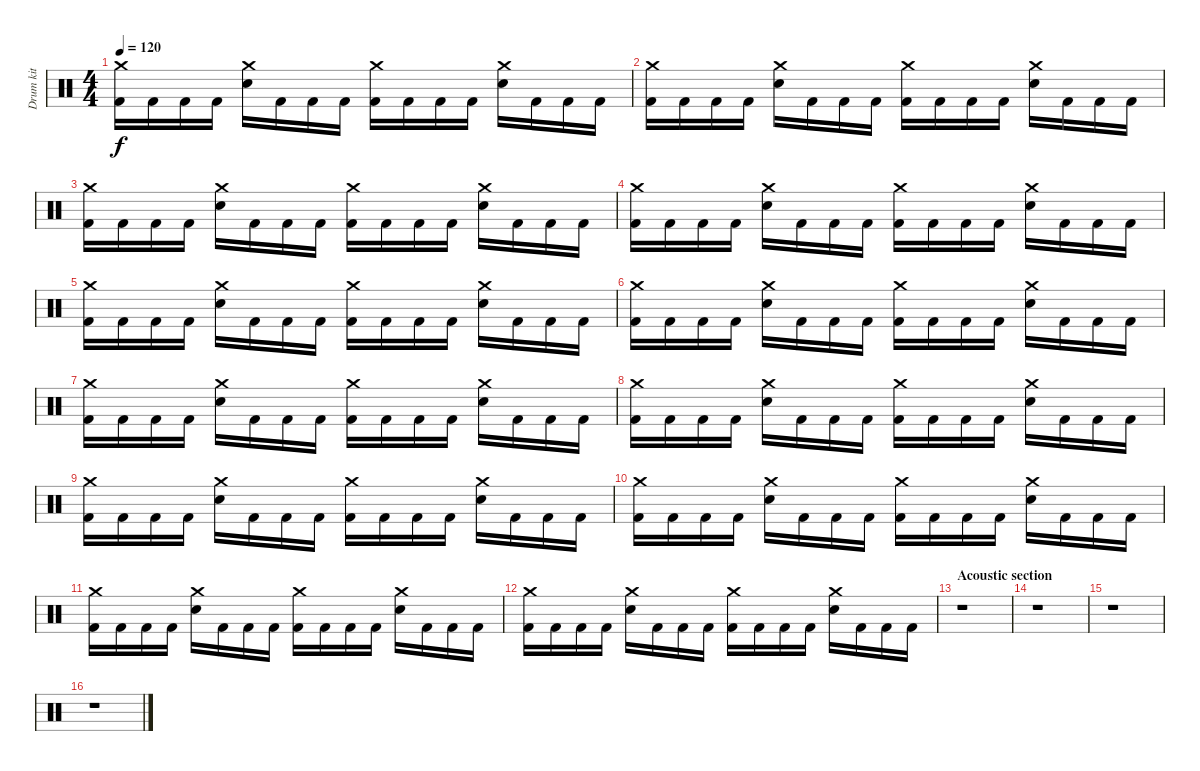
\track ("Drum kit" "Drum kit") {instrument percussion}
\staff {score}
\articulation defaults
\ts (4 4)
\tempo 120
\clef neutral
\ks c
("Kick (hit) 2" "Crash medium (hit)").16{dy f} "Kick (hit) 2".16 "Kick (hit) 2".16 "Kick (hit) 2".16 ("Electric Snare (hit)" "Crash medium (hit)").16 "Kick (hit) 2".16 "Kick (hit) 2".16 "Kick (hit) 2".16 ("Kick (hit) 2" "Crash medium (hit)").16 "Kick (hit) 2".16 "Kick (hit) 2".16 "Kick (hit) 2".16 ("Electric Snare (hit)" "Crash medium (hit)").16 "Kick (hit) 2".16 "Kick (hit) 2".16 "Kick (hit) 2".16 |
("Kick (hit) 2" "Crash medium (hit)").16 "Kick (hit) 2".16 "Kick (hit) 2".16 "Kick (hit) 2".16 ("Electric Snare (hit)" "Crash medium (hit)").16 "Kick (hit) 2".16 "Kick (hit) 2".16 "Kick (hit) 2".16 ("Kick (hit) 2" "Crash medium (hit)").16 "Kick (hit) 2".16 "Kick (hit) 2".16 "Kick (hit) 2".16 ("Electric Snare (hit)" "Crash medium (hit)").16 "Kick (hit) 2".16 "Kick (hit) 2".16 "Kick (hit) 2".16 |
("Kick (hit) 2" "Crash medium (hit)").16 "Kick (hit) 2".16 "Kick (hit) 2".16 "Kick (hit) 2".16 ("Electric Snare (hit)" "Crash medium (hit)").16 "Kick (hit) 2".16 "Kick (hit) 2".16 "Kick (hit) 2".16 ("Kick (hit) 2" "Crash medium (hit)").16 "Kick (hit) 2".16 "Kick (hit) 2".16 "Kick (hit) 2".16 ("Electric Snare (hit)" "Crash medium (hit)").16 "Kick (hit) 2".16 "Kick (hit) 2".16 "Kick (hit) 2".16 |
("Kick (hit) 2" "Crash medium (hit)").16 "Kick (hit) 2".16 "Kick (hit) 2".16 "Kick (hit) 2".16 ("Electric Snare (hit)" "Crash medium (hit)").16 "Kick (hit) 2".16 "Kick (hit) 2".16 "Kick (hit) 2".16 ("Kick (hit) 2" "Crash medium (hit)").16 "Kick (hit) 2".16 "Kick (hit) 2".16 "Kick (hit) 2".16 ("Electric Snare (hit)" "Crash medium (hit)").16 "Kick (hit) 2".16 "Kick (hit) 2".16 "Kick (hit) 2".16 |
("Kick (hit) 2" "Crash medium (hit)").16 "Kick (hit) 2".16 "Kick (hit) 2".16 "Kick (hit) 2".16 ("Electric Snare (hit)" "Crash medium (hit)").16 "Kick (hit) 2".16 "Kick (hit) 2".16 "Kick (hit) 2".16 ("Kick (hit) 2" "Crash medium (hit)").16 "Kick (hit) 2".16 "Kick (hit) 2".16 "Kick (hit) 2".16 ("Electric Snare (hit)" "Crash medium (hit)").16 "Kick (hit) 2".16 "Kick (hit) 2".16 "Kick (hit) 2".16 |
("Kick (hit) 2" "Crash medium (hit)").16 "Kick (hit) 2".16 "Kick (hit) 2".16 "Kick (hit) 2".16 ("Electric Snare (hit)" "Crash medium (hit)").16 "Kick (hit) 2".16 "Kick (hit) 2".16 "Kick (hit) 2".16 ("Kick (hit) 2" "Crash medium (hit)").16 "Kick (hit) 2".16 "Kick (hit) 2".16 "Kick (hit) 2".16 ("Electric Snare (hit)" "Crash medium (hit)").16 "Kick (hit) 2".16 "Kick (hit) 2".16 "Kick (hit) 2".16 |
("Kick (hit) 2" "Crash medium (hit)").16 "Kick (hit) 2".16 "Kick (hit) 2".16 "Kick (hit) 2".16 ("Electric Snare (hit)" "Crash medium (hit)").16 "Kick (hit) 2".16 "Kick (hit) 2".16 "Kick (hit) 2".16 ("Kick (hit) 2" "Crash medium (hit)").16 "Kick (hit) 2".16 "Kick (hit) 2".16 "Kick (hit) 2".16 ("Electric Snare (hit)" "Crash medium (hit)").16 "Kick (hit) 2".16 "Kick (hit) 2".16 "Kick (hit) 2".16 |
("Kick (hit) 2" "Crash medium (hit)").16 "Kick (hit) 2".16 "Kick (hit) 2".16 "Kick (hit) 2".16 ("Electric Snare (hit)" "Crash medium (hit)").16 "Kick (hit) 2".16 "Kick (hit) 2".16 "Kick (hit) 2".16 ("Kick (hit) 2" "Crash medium (hit)").16 "Kick (hit) 2".16 "Kick (hit) 2".16 "Kick (hit) 2".16 ("Electric Snare (hit)" "Crash medium (hit)").16 "Kick (hit) 2".16 "Kick (hit) 2".16 "Kick (hit) 2".16 |
("Kick (hit) 2" "Crash medium (hit)").16 "Kick (hit) 2".16 "Kick (hit) 2".16 "Kick (hit) 2".16 ("Electric Snare (hit)" "Crash medium (hit)").16 "Kick (hit) 2".16 "Kick (hit) 2".16 "Kick (hit) 2".16 ("Kick (hit) 2" "Crash medium (hit)").16 "Kick (hit) 2".16 "Kick (hit) 2".16 "Kick (hit) 2".16 ("Electric Snare (hit)" "Crash medium (hit)").16 "Kick (hit) 2".16 "Kick (hit) 2".16 "Kick (hit) 2".16 |
("Kick (hit) 2" "Crash medium (hit)").16 "Kick (hit) 2".16 "Kick (hit) 2".16 "Kick (hit) 2".16 ("Electric Snare (hit)" "Crash medium (hit)").16 "Kick (hit) 2".16 "Kick (hit) 2".16 "Kick (hit) 2".16 ("Kick (hit) 2" "Crash medium (hit)").16 "Kick (hit) 2".16 "Kick (hit) 2".16 "Kick (hit) 2".16 ("Electric Snare (hit)" "Crash medium (hit)").16 "Kick (hit) 2".16 "Kick (hit) 2".16 "Kick (hit) 2".16 |
("Kick (hit) 2" "Crash medium (hit)").16 "Kick (hit) 2".16 "Kick (hit) 2".16 "Kick (hit) 2".16 ("Electric Snare (hit)" "Crash medium (hit)").16 "Kick (hit) 2".16 "Kick (hit) 2".16 "Kick (hit) 2".16 ("Kick (hit) 2" "Crash medium (hit)").16 "Kick (hit) 2".16 "Kick (hit) 2".16 "Kick (hit) 2".16 ("Electric Snare (hit)" "Crash medium (hit)").16 "Kick (hit) 2".16 "Kick (hit) 2".16 "Kick (hit) 2".16 |
("Kick (hit) 2" "Crash medium (hit)").16 "Kick (hit) 2".16 "Kick (hit) 2".16 "Kick (hit) 2".16 ("Electric Snare (hit)" "Crash medium (hit)").16 "Kick (hit) 2".16 "Kick (hit) 2".16 "Kick (hit) 2".16 ("Kick (hit) 2" "Crash medium (hit)").16 "Kick (hit) 2".16 "Kick (hit) 2".16 "Kick (hit) 2".16 ("Electric Snare (hit)" "Crash medium (hit)").16{volume 12} "Kick (hit) 2".16{volume 10} "Kick (hit) 2".16{volume 9} "Kick (hit) 2".16{volume 7} |
\section ("" "Acoustic section")
r.1 |
r.1 |
r.1 |
r.1
